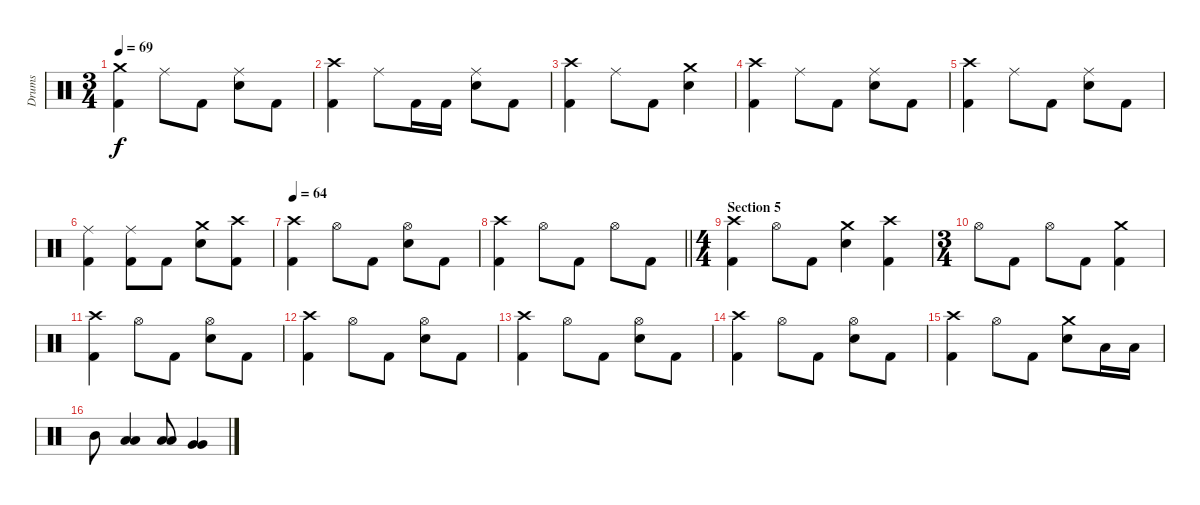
\track ("Drums" "Drums") {instrument percussion}
\staff {score}
\articulation defaults
\ts (3 4)
\tempo 69
\clef neutral
\ks c
("Crash medium (hit)" "Kick (hit) 2").4{dy f} "Ride (middle)".8 "Kick (hit) 2".8 ("Ride (middle)" "Electric Snare (hit)").8 "Kick (hit) 2".8 |
("Crash high (hit)" "Kick (hit) 2").4 "Ride (middle)".8 "Kick (hit) 2".16 "Kick (hit) 2".16 ("Ride (middle)" "Electric Snare (hit)").8 "Kick (hit) 2".8 |
("Crash high (hit)" "Kick (hit) 2").4 "Ride (middle)".8 "Kick (hit) 2".8 ("Crash medium (hit)" "Electric Snare (hit)").4 |
("Crash high (hit)" "Kick (hit) 2").4 "Ride (middle)".8 "Kick (hit) 2".8 ("Ride (middle)" "Electric Snare (hit)").8 "Kick (hit) 2".8 |
("Crash high (hit)" "Kick (hit) 2").4 "Ride (middle)".8 "Kick (hit) 2".8 ("Ride (middle)" "Electric Snare (hit)").8 "Kick (hit) 2".8 |
("Ride (middle)" "Kick (hit) 2").4 ("Ride (middle)" "Kick (hit) 2").8 "Kick (hit) 2".8 ("Crash medium (hit)" "Electric Snare (hit)").8 ("Crash high (hit)" "Kick (hit) 2").8 |
\tempo 64
("Crash high (hit)" "Kick (hit) 2").4 "Hi-Hat (open)".8 "Kick (hit) 2".8 ("Hi-Hat (open)" "Electric Snare (hit)").8 "Kick (hit) 2".8 |
\barLineRight lightlight
("Crash high (hit)" "Kick (hit) 2").4 "Hi-Hat (open)".8 "Kick (hit) 2".8 "Hi-Hat (open)".8 "Kick (hit) 2".8 |
\ts (4 4)
\section ("" "Section 5")
("Crash high (hit)" "Kick (hit) 2").4 "Hi-Hat (open)".8 "Kick (hit) 2".8 ("Crash medium (hit)" "Electric Snare (hit)").4 ("Crash high (hit)" "Kick (hit) 2").4 |
\ts (3 4)
"Hi-Hat (open)".8 "Kick (hit) 2".8 "Hi-Hat (open)".8 "Kick (hit) 2".8 ("Crash medium (hit)" "Kick (hit) 2").4 |
("Crash high (hit)" "Kick (hit) 2").4 "Hi-Hat (open)".8 "Kick (hit) 2".8 ("Hi-Hat (open)" "Electric Snare (hit)").8 "Kick (hit) 2".8 |
("Crash high (hit)" "Kick (hit) 2").4 "Hi-Hat (open)".8 "Kick (hit) 2".8 ("Hi-Hat (open)" "Electric Snare (hit)").8 "Kick (hit) 2".8 |
("Crash high (hit)" "Kick (hit) 2").4 "Hi-Hat (open)".8 "Kick (hit) 2".8 ("Hi-Hat (open)" "Electric Snare (hit)").8 "Kick (hit) 2".8 |
("Crash high (hit)" "Kick (hit) 2").4 "Hi-Hat (open)".8 "Kick (hit) 2".8 ("Hi-Hat (open)" "Electric Snare (hit)").8 "Kick (hit) 2".8 |
("Crash high (hit)" "Kick (hit) 2").4 "Hi-Hat (open)".8 "Kick (hit) 2".8 ("Crash medium (hit)" "Electric Snare (hit)").8 "Low Tom (hit)".16 "Low Tom (hit)".16 |
"Mid Tom (hit)".8 ("Low Tom (hit)" "Low Tom (hit)").4 ("Low Tom (hit)" "Low Tom (hit)").8 ("Very Low Tom (hit)" "Very Low Tom (hit)").4
